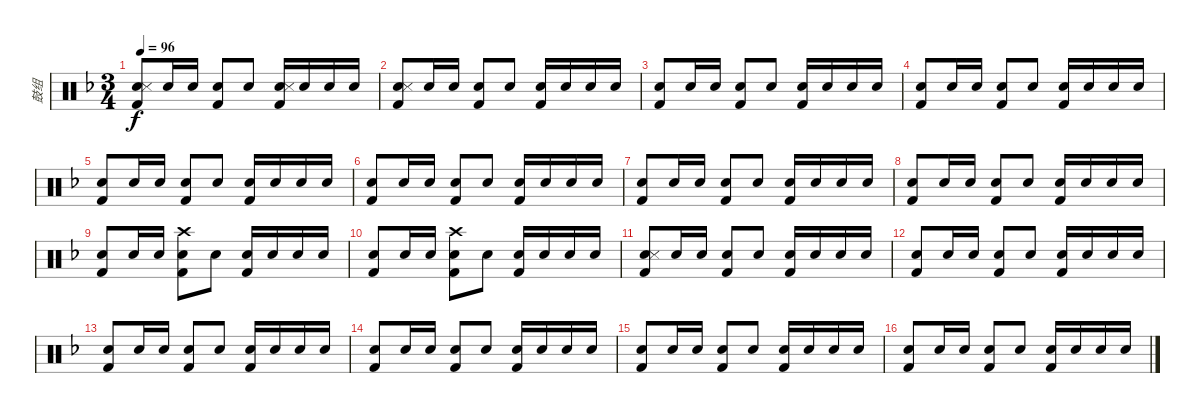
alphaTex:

\track ("鼓组" "鼓组") {instrument percussion}
\staff {score}
\articulation defaults
\ts (3 4)
\tempo 96
\clef neutral
\ks f
("Snare (hit) 2" "Snare (side stick) 3" "Kick (hit) 2").8{dy f volume 10} "Snare (hit) 2".16 "Snare (hit) 2".16 ("Snare (hit) 2" "Kick (hit) 2").8 "Snare (hit) 2".8 ("Snare (hit) 2" "Snare (side stick) 3" "Kick (hit) 2").16 "Snare (hit) 2".16 "Snare (hit) 2".16 "Snare (hit) 2".16 |
("Snare (hit) 2" "Snare (side stick) 3" "Kick (hit) 2").8 "Snare (hit) 2".16 "Snare (hit) 2".16 ("Snare (hit) 2" "Kick (hit) 2").8 "Snare (hit) 2".8 ("Snare (hit) 2" "Kick (hit) 2").16 "Snare (hit) 2".16 "Snare (hit) 2".16 "Snare (hit) 2".16 |
("Snare (hit) 2" "Kick (hit) 2").8 "Snare (hit) 2".16 "Snare (hit) 2".16 ("Snare (hit) 2" "Kick (hit) 2").8 "Snare (hit) 2".8 ("Snare (hit) 2" "Kick (hit) 2").16 "Snare (hit) 2".16 "Snare (hit) 2".16 "Snare (hit) 2".16 |
("Snare (hit) 2" "Kick (hit) 2").8 "Snare (hit) 2".16 "Snare (hit) 2".16 ("Snare (hit) 2" "Kick (hit) 2").8 "Snare (hit) 2".8 ("Snare (hit) 2" "Kick (hit) 2").16 "Snare (hit) 2".16 "Snare (hit) 2".16 "Snare (hit) 2".16 |
("Snare (hit) 2" "Kick (hit) 2").8 "Snare (hit) 2".16 "Snare (hit) 2".16 ("Snare (hit) 2" "Kick (hit) 2").8 "Snare (hit) 2".8 ("Snare (hit) 2" "Kick (hit) 2").16 "Snare (hit) 2".16 "Snare (hit) 2".16 "Snare (hit) 2".16 |
("Snare (hit) 2" "Kick (hit) 2").8 "Snare (hit) 2".16 "Snare (hit) 2".16 ("Snare (hit) 2" "Kick (hit) 2").8 "Snare (hit) 2".8 ("Snare (hit) 2" "Kick (hit) 2").16 "Snare (hit) 2".16 "Snare (hit) 2".16 "Snare (hit) 2".16 |
("Snare (hit) 2" "Kick (hit) 2").8 "Snare (hit) 2".16 "Snare (hit) 2".16 ("Snare (hit) 2" "Kick (hit) 2").8 "Snare (hit) 2".8 ("Snare (hit) 2" "Kick (hit) 2").16 "Snare (hit) 2".16 "Snare (hit) 2".16 "Snare (hit) 2".16 |
("Snare (hit) 2" "Kick (hit) 2").8 "Snare (hit) 2".16 "Snare (hit) 2".16 ("Snare (hit) 2" "Kick (hit) 2").8 "Snare (hit) 2".8 ("Snare (hit) 2" "Kick (hit) 2").16 "Snare (hit) 2".16 "Snare (hit) 2".16 "Snare (hit) 2".16 |
("Snare (hit) 2" "Kick (hit) 2").8 "Snare (hit) 2".16 "Snare (hit) 2".16 ("Snare (hit) 2" "Crash high (hit)" "Kick (hit) 2").8 "Snare (hit) 2".8 ("Snare (hit) 2" "Kick (hit) 2").16 "Snare (hit) 2".16 "Snare (hit) 2".16 "Snare (hit) 2".16 |
("Snare (hit) 2" "Kick (hit) 2").8 "Snare (hit) 2".16 "Snare (hit) 2".16 ("Snare (hit) 2" "Crash high (hit)" "Kick (hit) 2").8 "Snare (hit) 2".8 ("Snare (hit) 2" "Kick (hit) 2").16 "Snare (hit) 2".16 "Snare (hit) 2".16 "Snare (hit) 2".16 |
("Snare (hit) 2" "Snare (side stick) 3" "Kick (hit) 2").8 "Snare (hit) 2".16 "Snare (hit) 2".16 ("Snare (hit) 2" "Kick (hit) 2").8 "Snare (hit) 2".8 ("Snare (hit) 2" "Kick (hit) 2").16 "Snare (hit) 2".16 "Snare (hit) 2".16 "Snare (hit) 2".16 |
("Snare (hit) 2" "Kick (hit) 2").8 "Snare (hit) 2".16 "Snare (hit) 2".16 ("Snare (hit) 2" "Kick (hit) 2").8 "Snare (hit) 2".8 ("Snare (hit) 2" "Kick (hit) 2").16 "Snare (hit) 2".16 "Snare (hit) 2".16 "Snare (hit) 2".16 |
("Snare (hit) 2" "Kick (hit) 2").8 "Snare (hit) 2".16 "Snare (hit) 2".16 ("Snare (hit) 2" "Kick (hit) 2").8 "Snare (hit) 2".8 ("Snare (hit) 2" "Kick (hit) 2").16 "Snare (hit) 2".16 "Snare (hit) 2".16 "Snare (hit) 2".16 |
("Snare (hit) 2" "Kick (hit) 2").8 "Snare (hit) 2".16 "Snare (hit) 2".16 ("Snare (hit) 2" "Kick (hit) 2").8 "Snare (hit) 2".8 ("Snare (hit) 2" "Kick (hit) 2").16 "Snare (hit) 2".16 "Snare (hit) 2".16 "Snare (hit) 2".16 |
("Snare (hit) 2" "Kick (hit) 2").8 "Snare (hit) 2".16 "Snare (hit) 2".16 ("Snare (hit) 2" "Kick (hit) 2").8 "Snare (hit) 2".8 ("Snare (hit) 2" "Kick (hit) 2").16 "Snare (hit) 2".16 "Snare (hit) 2".16 "Snare (hit) 2".16 |
("Snare (hit) 2" "Kick (hit) 2").8 "Snare (hit) 2".16 "Snare (hit) 2".16 ("Snare (hit) 2" "Kick (hit) 2").8 "Snare (hit) 2".8 ("Snare (hit) 2" "Kick (hit) 2").16 "Snare (hit) 2".16 "Snare (hit) 2".16 "Snare (hit) 2".16
